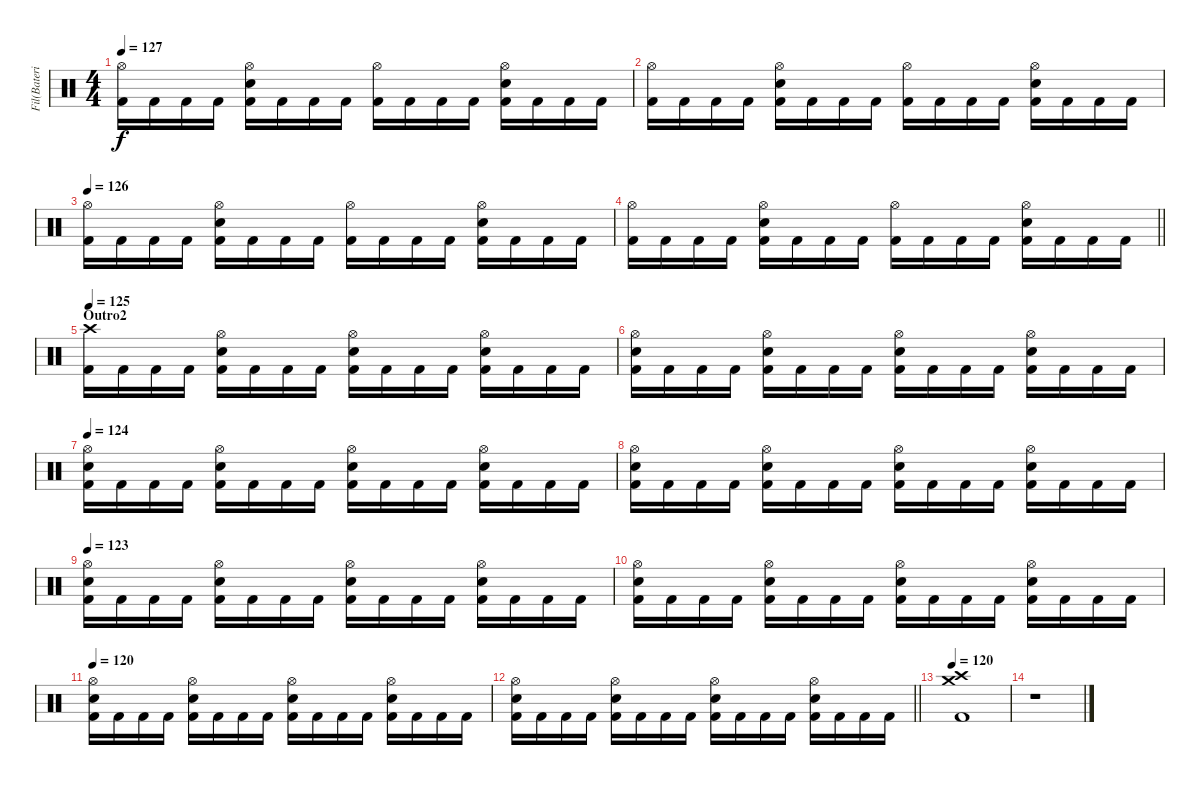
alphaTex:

\track ("Fil(Bateria)" "Fil(Bateri") {instrument percussion}
\staff {score}
\articulation defaults
\ts (4 4)
\tempo 127
\clef neutral
\ks c
("Hi-Hat (open)" "Kick (hit) 2").16{dy f} "Kick (hit) 2".16 "Kick (hit) 2".16 "Kick (hit) 2".16 ("Hi-Hat (open)" "Electric Snare (hit)" "Kick (hit) 2").16 "Kick (hit) 2".16 "Kick (hit) 2".16 "Kick (hit) 2".16 ("Hi-Hat (open)" "Kick (hit) 2").16 "Kick (hit) 2".16 "Kick (hit) 2".16 "Kick (hit) 2".16 ("Hi-Hat (open)" "Electric Snare (hit)" "Kick (hit) 2").16 "Kick (hit) 2".16 "Kick (hit) 2".16 "Kick (hit) 2".16 |
("Hi-Hat (open)" "Kick (hit) 2").16 "Kick (hit) 2".16 "Kick (hit) 2".16 "Kick (hit) 2".16 ("Hi-Hat (open)" "Electric Snare (hit)" "Kick (hit) 2").16 "Kick (hit) 2".16 "Kick (hit) 2".16 "Kick (hit) 2".16 ("Hi-Hat (open)" "Kick (hit) 2").16 "Kick (hit) 2".16 "Kick (hit) 2".16 "Kick (hit) 2".16 ("Hi-Hat (open)" "Electric Snare (hit)" "Kick (hit) 2").16 "Kick (hit) 2".16 "Kick (hit) 2".16 "Kick (hit) 2".16 |
\tempo 126
("Hi-Hat (open)" "Kick (hit) 2").16 "Kick (hit) 2".16 "Kick (hit) 2".16 "Kick (hit) 2".16 ("Hi-Hat (open)" "Electric Snare (hit)" "Kick (hit) 2").16 "Kick (hit) 2".16 "Kick (hit) 2".16 "Kick (hit) 2".16 ("Hi-Hat (open)" "Kick (hit) 2").16 "Kick (hit) 2".16 "Kick (hit) 2".16 "Kick (hit) 2".16 ("Hi-Hat (open)" "Electric Snare (hit)" "Kick (hit) 2").16 "Kick (hit) 2".16 "Kick (hit) 2".16 "Kick (hit) 2".16 |
\barLineRight lightlight
("Hi-Hat (open)" "Kick (hit) 2").16 "Kick (hit) 2".16 "Kick (hit) 2".16 "Kick (hit) 2".16 ("Hi-Hat (open)" "Electric Snare (hit)" "Kick (hit) 2").16 "Kick (hit) 2".16 "Kick (hit) 2".16 "Kick (hit) 2".16 ("Hi-Hat (open)" "Kick (hit) 2").16 "Kick (hit) 2".16 "Kick (hit) 2".16 "Kick (hit) 2".16 ("Hi-Hat (open)" "Electric Snare (hit)" "Kick (hit) 2").16 "Kick (hit) 2".16 "Kick (hit) 2".16 "Kick (hit) 2".16 |
\section ("" "Outro2")
\tempo 125
("Crash high (hit)" "Kick (hit) 2").16 "Kick (hit) 2".16 "Kick (hit) 2".16 "Kick (hit) 2".16 ("Hi-Hat (open)" "Electric Snare (hit)" "Kick (hit) 2").16 "Kick (hit) 2".16 "Kick (hit) 2".16 "Kick (hit) 2".16 ("Hi-Hat (open)" "Electric Snare (hit)" "Kick (hit) 2").16 "Kick (hit) 2".16 "Kick (hit) 2".16 "Kick (hit) 2".16 ("Hi-Hat (open)" "Electric Snare (hit)" "Kick (hit) 2").16 "Kick (hit) 2".16 "Kick (hit) 2".16 "Kick (hit) 2".16 |
("Hi-Hat (open)" "Electric Snare (hit)" "Kick (hit) 2").16 "Kick (hit) 2".16 "Kick (hit) 2".16 "Kick (hit) 2".16 ("Hi-Hat (open)" "Electric Snare (hit)" "Kick (hit) 2").16 "Kick (hit) 2".16 "Kick (hit) 2".16 "Kick (hit) 2".16 ("Hi-Hat (open)" "Electric Snare (hit)" "Kick (hit) 2").16 "Kick (hit) 2".16 "Kick (hit) 2".16 "Kick (hit) 2".16 ("Hi-Hat (open)" "Electric Snare (hit)" "Kick (hit) 2").16 "Kick (hit) 2".16 "Kick (hit) 2".16 "Kick (hit) 2".16 |
\tempo 124
("Hi-Hat (open)" "Electric Snare (hit)" "Kick (hit) 2").16 "Kick (hit) 2".16 "Kick (hit) 2".16 "Kick (hit) 2".16 ("Hi-Hat (open)" "Electric Snare (hit)" "Kick (hit) 2").16 "Kick (hit) 2".16 "Kick (hit) 2".16 "Kick (hit) 2".16 ("Hi-Hat (open)" "Electric Snare (hit)" "Kick (hit) 2").16 "Kick (hit) 2".16 "Kick (hit) 2".16 "Kick (hit) 2".16 ("Hi-Hat (open)" "Electric Snare (hit)" "Kick (hit) 2").16 "Kick (hit) 2".16 "Kick (hit) 2".16 "Kick (hit) 2".16 |
("Hi-Hat (open)" "Electric Snare (hit)" "Kick (hit) 2").16 "Kick (hit) 2".16 "Kick (hit) 2".16 "Kick (hit) 2".16 ("Hi-Hat (open)" "Electric Snare (hit)" "Kick (hit) 2").16 "Kick (hit) 2".16 "Kick (hit) 2".16 "Kick (hit) 2".16 ("Hi-Hat (open)" "Electric Snare (hit)" "Kick (hit) 2").16 "Kick (hit) 2".16 "Kick (hit) 2".16 "Kick (hit) 2".16 ("Hi-Hat (open)" "Electric Snare (hit)" "Kick (hit) 2").16 "Kick (hit) 2".16 "Kick (hit) 2".16 "Kick (hit) 2".16 |
\tempo 123
("Hi-Hat (open)" "Electric Snare (hit)" "Kick (hit) 2").16 "Kick (hit) 2".16 "Kick (hit) 2".16 "Kick (hit) 2".16 ("Hi-Hat (open)" "Electric Snare (hit)" "Kick (hit) 2").16 "Kick (hit) 2".16 "Kick (hit) 2".16 "Kick (hit) 2".16 ("Hi-Hat (open)" "Electric Snare (hit)" "Kick (hit) 2").16 "Kick (hit) 2".16 "Kick (hit) 2".16 "Kick (hit) 2".16 ("Hi-Hat (open)" "Electric Snare (hit)" "Kick (hit) 2").16 "Kick (hit) 2".16 "Kick (hit) 2".16 "Kick (hit) 2".16 |
("Hi-Hat (open)" "Electric Snare (hit)" "Kick (hit) 2").16 "Kick (hit) 2".16 "Kick (hit) 2".16 "Kick (hit) 2".16 ("Hi-Hat (open)" "Electric Snare (hit)" "Kick (hit) 2").16 "Kick (hit) 2".16 "Kick (hit) 2".16 "Kick (hit) 2".16 ("Hi-Hat (open)" "Electric Snare (hit)" "Kick (hit) 2").16 "Kick (hit) 2".16 "Kick (hit) 2".16 "Kick (hit) 2".16 ("Hi-Hat (open)" "Electric Snare (hit)" "Kick (hit) 2").16 "Kick (hit) 2".16 "Kick (hit) 2".16 "Kick (hit) 2".16 |
\tempo 120
("Hi-Hat (open)" "Electric Snare (hit)" "Kick (hit) 2").16 "Kick (hit) 2".16 "Kick (hit) 2".16 "Kick (hit) 2".16 ("Hi-Hat (open)" "Electric Snare (hit)" "Kick (hit) 2").16 "Kick (hit) 2".16 "Kick (hit) 2".16 "Kick (hit) 2".16 ("Hi-Hat (open)" "Electric Snare (hit)" "Kick (hit) 2").16 "Kick (hit) 2".16 "Kick (hit) 2".16 "Kick (hit) 2".16 ("Hi-Hat (open)" "Electric Snare (hit)" "Kick (hit) 2").16 "Kick (hit) 2".16 "Kick (hit) 2".16 "Kick (hit) 2".16 |
\barLineRight lightlight
("Hi-Hat (open)" "Electric Snare (hit)" "Kick (hit) 2").16 "Kick (hit) 2".16 "Kick (hit) 2".16 "Kick (hit) 2".16 ("Hi-Hat (open)" "Electric Snare (hit)" "Kick (hit) 2").16 "Kick (hit) 2".16 "Kick (hit) 2".16 "Kick (hit) 2".16 ("Hi-Hat (open)" "Electric Snare (hit)" "Kick (hit) 2").16 "Kick (hit) 2".16 "Kick (hit) 2".16 "Kick (hit) 2".16 ("Hi-Hat (open)" "Electric Snare (hit)" "Kick (hit) 2").16 "Kick (hit) 2".16 "Kick (hit) 2".16 "Kick (hit) 2".16 |
\tempo 120
("Crash medium (hit)" "Crash high (hit)" "Kick (hit) 2").1 |
r.1
